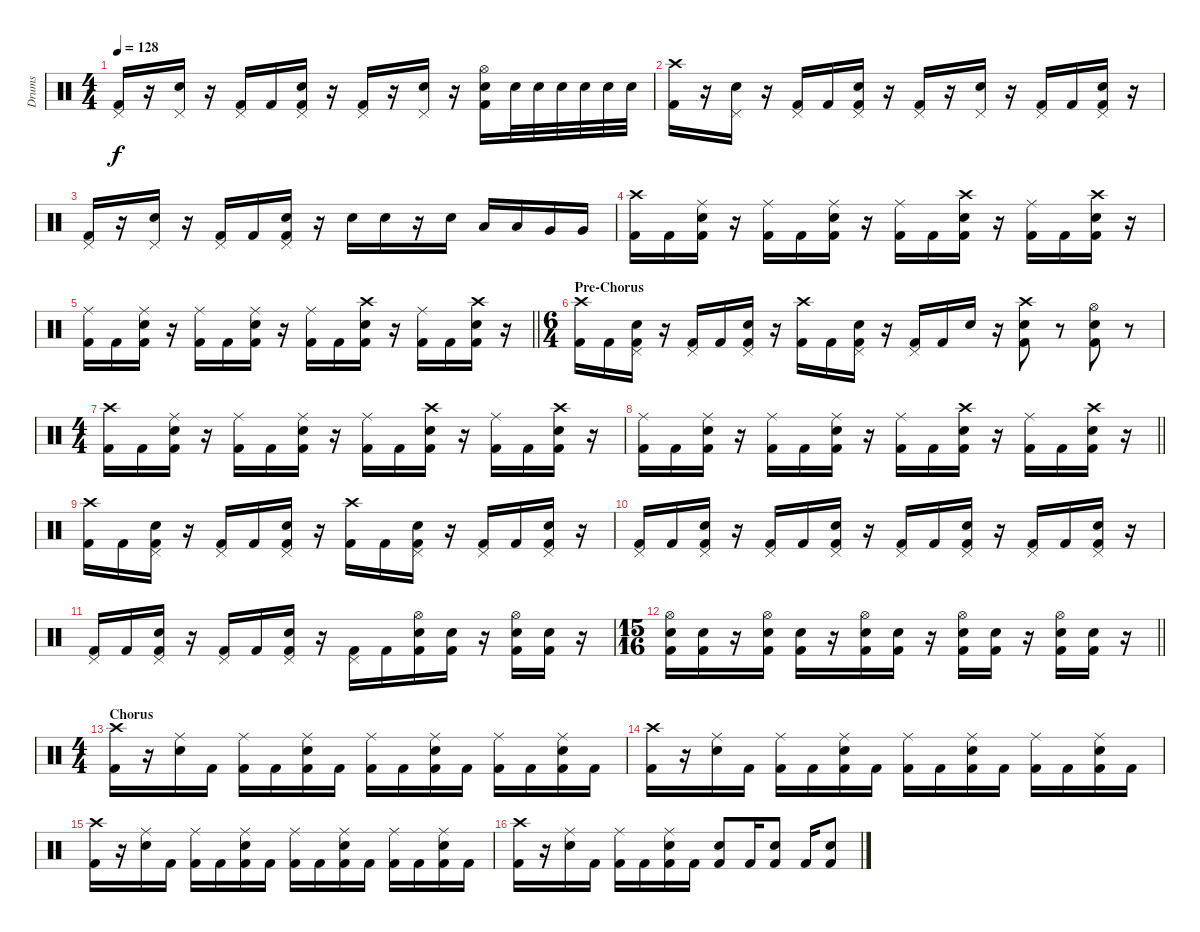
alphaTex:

\track ("Drums" "Drums") {instrument percussion}
\staff {score}
\articulation defaults
\ts (4 4)
\tempo 128
\clef neutral
\ks c
("Pedal Hi-Hat (hit)" "Kick (hit) 2").16{dy f} r.16 ("Pedal Hi-Hat (hit)" "Snare (hit) 2").16 r.16 ("Pedal Hi-Hat (hit)" "Kick (hit) 2").16 "Kick (hit) 2".16 ("Pedal Hi-Hat (hit)" "Snare (hit) 2" "Kick (hit) 2").16 r.16 ("Pedal Hi-Hat (hit)" "Kick (hit) 2").16 r.16 ("Pedal Hi-Hat (hit)" "Snare (hit) 2").16 r.16 ("Hi-Hat (open)" "Snare (hit) 2" "Kick (hit) 2").16 "Snare (hit) 2".32 "Snare (hit) 2".32 "Snare (hit) 2".32 "Snare (hit) 2".32 "Snare (hit) 2".32 "Snare (hit) 2".32 |
("Crash high (hit)" "Kick (hit) 2").16 r.16 ("Pedal Hi-Hat (hit)" "Snare (hit) 2").16 r.16 ("Pedal Hi-Hat (hit)" "Kick (hit) 2").16 "Kick (hit) 2".16 ("Pedal Hi-Hat (hit)" "Snare (hit) 2" "Kick (hit) 2").16 r.16 ("Pedal Hi-Hat (hit)" "Kick (hit) 2").16 r.16 ("Pedal Hi-Hat (hit)" "Snare (hit) 2").16 r.16 ("Pedal Hi-Hat (hit)" "Kick (hit) 2").16 "Kick (hit) 2".16 ("Pedal Hi-Hat (hit)" "Snare (hit) 2" "Kick (hit) 2").16 r.16 |
("Pedal Hi-Hat (hit)" "Kick (hit) 2").16 r.16 ("Pedal Hi-Hat (hit)" "Snare (hit) 2").16 r.16 ("Pedal Hi-Hat (hit)" "Kick (hit) 2").16 "Kick (hit) 2".16 ("Pedal Hi-Hat (hit)" "Snare (hit) 2" "Kick (hit) 2").16 r.16 "Snare (hit) 2".16 "Snare (hit) 2".16 r.16 "Snare (hit) 2".16 "Low Tom (hit)".16 "Low Tom (hit)".16 "Very Low Tom (hit)".16 "Very Low Tom (hit)".16 |
("Crash high (hit)" "Kick (hit) 2").16 "Kick (hit) 2".16 ("Ride (middle)" "Snare (hit) 2" "Kick (hit) 2").16 r.16 ("Ride (middle)" "Kick (hit) 2").16 "Kick (hit) 2".16 ("Ride (middle)" "Snare (hit) 2" "Kick (hit) 2").16 r.16 ("Ride (middle)" "Kick (hit) 2").16 "Kick (hit) 2".16 ("Crash high (hit)" "Snare (hit) 2" "Kick (hit) 2").16 r.16 ("Ride (middle)" "Kick (hit) 2").16 "Kick (hit) 2".16 ("Crash high (hit)" "Snare (hit) 2" "Kick (hit) 2").16 r.16 |
\barLineRight lightlight
("Ride (middle)" "Kick (hit) 2").16 "Kick (hit) 2".16 ("Ride (middle)" "Snare (hit) 2" "Kick (hit) 2").16 r.16 ("Ride (middle)" "Kick (hit) 2").16 "Kick (hit) 2".16 ("Ride (middle)" "Snare (hit) 2" "Kick (hit) 2").16 r.16 ("Ride (middle)" "Kick (hit) 2").16 "Kick (hit) 2".16 ("Crash high (hit)" "Snare (hit) 2" "Kick (hit) 2").16 r.16 ("Ride (middle)" "Kick (hit) 2").16 "Kick (hit) 2".16 ("Crash high (hit)" "Snare (hit) 2" "Kick (hit) 2").16 r.16 |
\ts (6 4)
\section ("" "Pre-Chorus")
("Crash high (hit)" "Kick (hit) 2").16 "Kick (hit) 2".16 ("Pedal Hi-Hat (hit)" "Snare (hit) 2" "Kick (hit) 2").16 r.16 ("Pedal Hi-Hat (hit)" "Kick (hit) 2").16 "Kick (hit) 2".16 ("Pedal Hi-Hat (hit)" "Snare (hit) 2" "Kick (hit) 2").16 r.16 ("Crash high (hit)" "Kick (hit) 2").16 "Kick (hit) 2".16 ("Pedal Hi-Hat (hit)" "Snare (hit) 2" "Kick (hit) 2").16 r.16 ("Pedal Hi-Hat (hit)" "Kick (hit) 2").16 "Kick (hit) 2".16 "Snare (hit) 2".16 r.16 ("Crash high (hit)" "Snare (hit) 2" "Kick (hit) 2").8 r.8 ("Hi-Hat (open)" "Snare (hit) 2" "Kick (hit) 2").8 r.8 |
\ts (4 4)
("Crash high (hit)" "Kick (hit) 2").16 "Kick (hit) 2".16 ("Ride (middle)" "Snare (hit) 2" "Kick (hit) 2").16 r.16 ("Ride (middle)" "Kick (hit) 2").16 "Kick (hit) 2".16 ("Ride (middle)" "Snare (hit) 2" "Kick (hit) 2").16 r.16 ("Ride (middle)" "Kick (hit) 2").16 "Kick (hit) 2".16 ("Crash high (hit)" "Snare (hit) 2" "Kick (hit) 2").16 r.16 ("Ride (middle)" "Kick (hit) 2").16 "Kick (hit) 2".16 ("Crash high (hit)" "Snare (hit) 2" "Kick (hit) 2").16 r.16 |
\barLineRight lightlight
("Ride (middle)" "Kick (hit) 2").16 "Kick (hit) 2".16 ("Ride (middle)" "Snare (hit) 2" "Kick (hit) 2").16 r.16 ("Ride (middle)" "Kick (hit) 2").16 "Kick (hit) 2".16 ("Ride (middle)" "Snare (hit) 2" "Kick (hit) 2").16 r.16 ("Ride (middle)" "Kick (hit) 2").16 "Kick (hit) 2".16 ("Crash high (hit)" "Snare (hit) 2" "Kick (hit) 2").16 r.16 ("Ride (middle)" "Kick (hit) 2").16 "Kick (hit) 2".16 ("Crash high (hit)" "Snare (hit) 2" "Kick (hit) 2").16 r.16 |
("Crash high (hit)" "Kick (hit) 2").16 "Kick (hit) 2".16 ("Pedal Hi-Hat (hit)" "Snare (hit) 2" "Kick (hit) 2").16 r.16 ("Pedal Hi-Hat (hit)" "Kick (hit) 2").16 "Kick (hit) 2".16 ("Pedal Hi-Hat (hit)" "Snare (hit) 2" "Kick (hit) 2").16 r.16 ("Crash high (hit)" "Kick (hit) 2").16 "Kick (hit) 2".16 ("Pedal Hi-Hat (hit)" "Snare (hit) 2" "Kick (hit) 2").16 r.16 ("Pedal Hi-Hat (hit)" "Kick (hit) 2").16 "Kick (hit) 2".16 ("Pedal Hi-Hat (hit)" "Snare (hit) 2" "Kick (hit) 2").16 r.16 |
("Pedal Hi-Hat (hit)" "Kick (hit) 2").16 "Kick (hit) 2".16 ("Pedal Hi-Hat (hit)" "Snare (hit) 2" "Kick (hit) 2").16 r.16 ("Pedal Hi-Hat (hit)" "Kick (hit) 2").16 "Kick (hit) 2".16 ("Pedal Hi-Hat (hit)" "Snare (hit) 2" "Kick (hit) 2").16 r.16 ("Pedal Hi-Hat (hit)" "Kick (hit) 2").16 "Kick (hit) 2".16 ("Pedal Hi-Hat (hit)" "Snare (hit) 2" "Kick (hit) 2").16 r.16 ("Pedal Hi-Hat (hit)" "Kick (hit) 2").16 "Kick (hit) 2".16 ("Pedal Hi-Hat (hit)" "Snare (hit) 2" "Kick (hit) 2").16 r.16 |
("Pedal Hi-Hat (hit)" "Kick (hit) 2").16 "Kick (hit) 2".16 ("Pedal Hi-Hat (hit)" "Snare (hit) 2" "Kick (hit) 2").16 r.16 ("Pedal Hi-Hat (hit)" "Kick (hit) 2").16 "Kick (hit) 2".16 ("Pedal Hi-Hat (hit)" "Snare (hit) 2" "Kick (hit) 2").16 r.16 ("Pedal Hi-Hat (hit)" "Kick (hit) 2").16 "Kick (hit) 2".16 ("Hi-Hat (open)" "Snare (hit) 2" "Kick (hit) 2").16 ("Snare (hit) 2" "Kick (hit) 2").16 r.16 ("Hi-Hat (open)" "Snare (hit) 2" "Kick (hit) 2").16 ("Snare (hit) 2" "Kick (hit) 2").16 r.16 |
\ts (15 16)
\barLineRight lightlight
("Hi-Hat (open)" "Snare (hit) 2" "Kick (hit) 2").16 ("Snare (hit) 2" "Kick (hit) 2").16 r.16 ("Hi-Hat (open)" "Snare (hit) 2" "Kick (hit) 2").16 ("Snare (hit) 2" "Kick (hit) 2").16 r.16 ("Hi-Hat (open)" "Snare (hit) 2" "Kick (hit) 2").16 ("Snare (hit) 2" "Kick (hit) 2").16 r.16 ("Hi-Hat (open)" "Snare (hit) 2" "Kick (hit) 2").16 ("Snare (hit) 2" "Kick (hit) 2").16 r.16 ("Hi-Hat (open)" "Snare (hit) 2" "Kick (hit) 2").16 ("Snare (hit) 2" "Kick (hit) 2").16 r.16 |
\ts (4 4)
\section ("" "Chorus")
("Crash high (hit)" "Kick (hit) 2").16 r.16 ("Ride (middle)" "Snare (hit) 2").16 "Kick (hit) 2".16 ("Ride (middle)" "Kick (hit) 2").16 "Kick (hit) 2".16 ("Ride (middle)" "Snare (hit) 2" "Kick (hit) 2").16 "Kick (hit) 2".16 ("Ride (middle)" "Kick (hit) 2").16 "Kick (hit) 2".16 ("Ride (middle)" "Snare (hit) 2" "Kick (hit) 2").16 "Kick (hit) 2".16 ("Ride (middle)" "Kick (hit) 2").16 "Kick (hit) 2".16 ("Ride (middle)" "Snare (hit) 2" "Kick (hit) 2").16 "Kick (hit) 2".16 |
("Crash high (hit)" "Kick (hit) 2").16 r.16 ("Ride (middle)" "Snare (hit) 2").16 "Kick (hit) 2".16 ("Ride (middle)" "Kick (hit) 2").16 "Kick (hit) 2".16 ("Ride (middle)" "Snare (hit) 2" "Kick (hit) 2").16 "Kick (hit) 2".16 ("Ride (middle)" "Kick (hit) 2").16 "Kick (hit) 2".16 ("Ride (middle)" "Snare (hit) 2" "Kick (hit) 2").16 "Kick (hit) 2".16 ("Ride (middle)" "Kick (hit) 2").16 "Kick (hit) 2".16 ("Ride (middle)" "Snare (hit) 2" "Kick (hit) 2").16 "Kick (hit) 2".16 |
("Crash high (hit)" "Kick (hit) 2").16 r.16 ("Ride (middle)" "Snare (hit) 2").16 "Kick (hit) 2".16 ("Ride (middle)" "Kick (hit) 2").16 "Kick (hit) 2".16 ("Ride (middle)" "Snare (hit) 2" "Kick (hit) 2").16 "Kick (hit) 2".16 ("Ride (middle)" "Kick (hit) 2").16 "Kick (hit) 2".16 ("Ride (middle)" "Snare (hit) 2" "Kick (hit) 2").16 "Kick (hit) 2".16 ("Ride (middle)" "Kick (hit) 2").16 "Kick (hit) 2".16 ("Ride (middle)" "Snare (hit) 2" "Kick (hit) 2").16 "Kick (hit) 2".16 |
("Crash high (hit)" "Kick (hit) 2").16 r.16 ("Ride (middle)" "Snare (hit) 2").16 "Kick (hit) 2".16 ("Ride (middle)" "Kick (hit) 2").16 "Kick (hit) 2".16 ("Ride (middle)" "Snare (hit) 2" "Kick (hit) 2").16 "Kick (hit) 2".16 ("Snare (hit) 2" "Kick (hit) 2").8 "Kick (hit) 2".16 ("Snare (hit) 2" "Kick (hit) 2").8 "Kick (hit) 2".16 ("Snare (hit) 2" "Kick (hit) 2").8
